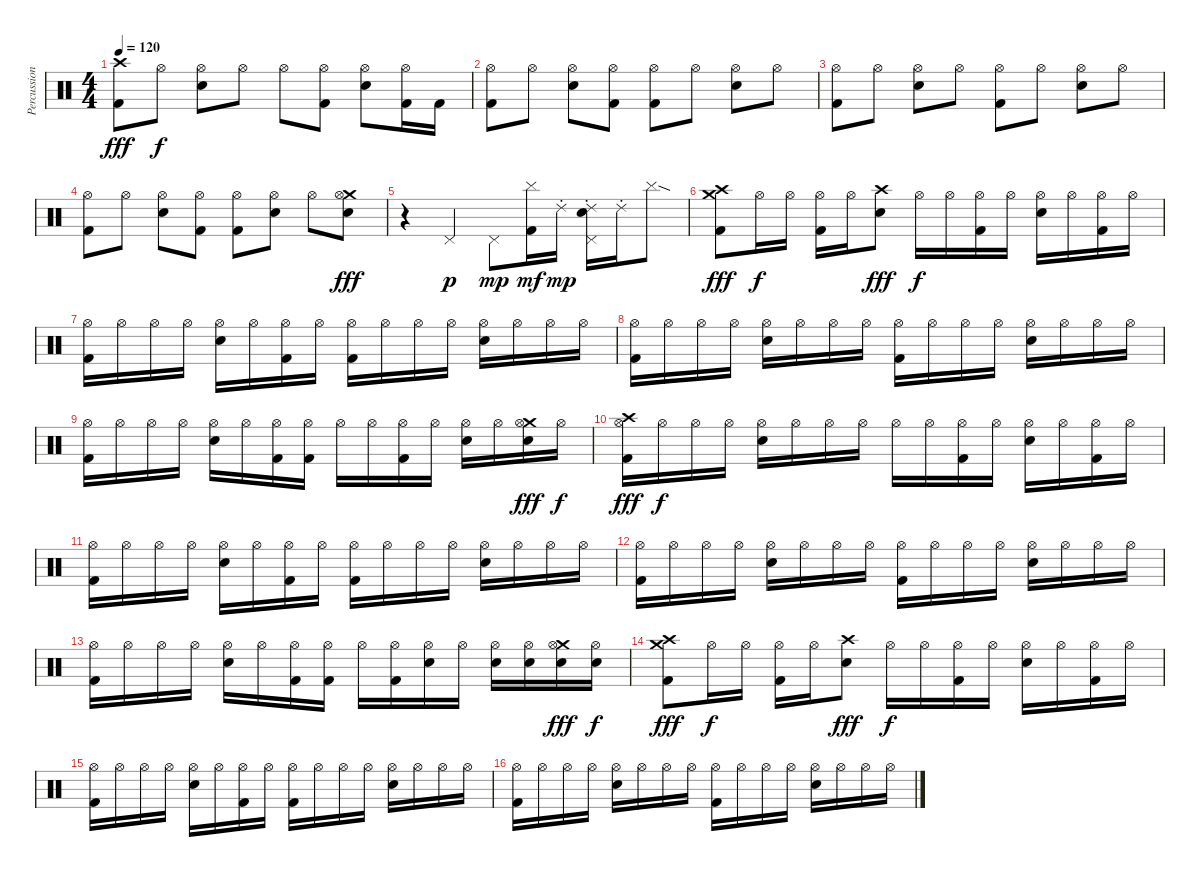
\track ("Percussion" "Percussion") {instrument percussion}
\staff {score}
\articulation defaults
\ts (4 4)
\tempo 120
\clef neutral
\ks c
("Crash high (hit)" "Kick (hit) 2").8{dy fff} "Hi-Hat (open)".8{dy f} ("Hi-Hat (open)" "Electric Snare (hit)").8 "Hi-Hat (open)".8 "Hi-Hat (open)".8 ("Hi-Hat (open)" "Kick (hit) 2").8 ("Hi-Hat (open)" "Electric Snare (hit)").8 ("Hi-Hat (open)" "Kick (hit) 2").16 "Kick (hit) 2".16 |
("Hi-Hat (open)" "Kick (hit) 2").8 "Hi-Hat (open)".8 ("Hi-Hat (open)" "Electric Snare (hit)").8 ("Hi-Hat (open)" "Kick (hit) 2").8 ("Hi-Hat (open)" "Kick (hit) 2").8 "Hi-Hat (open)".8 ("Hi-Hat (open)" "Electric Snare (hit)").8 "Hi-Hat (open)".8 |
("Hi-Hat (open)" "Kick (hit) 2").8 "Hi-Hat (open)".8 ("Hi-Hat (open)" "Electric Snare (hit)").8 "Hi-Hat (open)".8 ("Hi-Hat (open)" "Kick (hit) 2").8 "Hi-Hat (open)".8 ("Hi-Hat (open)" "Electric Snare (hit)").8 "Hi-Hat (open)".8 |
("Hi-Hat (open)" "Kick (hit) 2").8 "Hi-Hat (open)".8 ("Hi-Hat (open)" "Electric Snare (hit)").8 ("Hi-Hat (open)" "Kick (hit) 2").8 ("Hi-Hat (open)" "Kick (hit) 2").8 ("Hi-Hat (open)" "Electric Snare (hit)").8 "Hi-Hat (open)".8 ("Crash medium (hit)" "Hi-Hat (open)" "Electric Snare (hit)").8{dy fff} |
r.4 "Pedal Hi-Hat (hit)".4{dy p} "Pedal Hi-Hat (hit)".8{dy mp} ("Cymbal (hit)" "Kick (hit) 2").16{dy mf} "Ride (choke) 2".16{dy mp} ("Ride (choke) 2" "Pedal Hi-Hat (hit)" "Electric Snare (hit)").16 "Ride (choke) 2".16 "Cymbal (hit)"{sod}.8 |
("Crash high (hit)" "Crash medium (hit)" "Kick (hit) 2").8{dy fff volume 9} "Hi-Hat (open)".16{dy f} "Hi-Hat (open)".16 ("Hi-Hat (open)" "Kick (hit) 2").16 "Hi-Hat (open)".16 ("Crash high (hit)" "Electric Snare (hit)").8{dy fff} "Hi-Hat (open)".16{dy f} "Hi-Hat (open)".16 ("Hi-Hat (open)" "Kick (hit) 2").16 "Hi-Hat (open)".16 ("Hi-Hat (open)" "Electric Snare (hit)").16 "Hi-Hat (open)".16 ("Hi-Hat (open)" "Kick (hit) 2").16 "Hi-Hat (open)".16 |
("Hi-Hat (open)" "Kick (hit) 2").16 "Hi-Hat (open)".16 "Hi-Hat (open)".16 "Hi-Hat (open)".16 ("Hi-Hat (open)" "Electric Snare (hit)").16 "Hi-Hat (open)".16 ("Hi-Hat (open)" "Kick (hit) 2").16 "Hi-Hat (open)".16 ("Hi-Hat (open)" "Kick (hit) 2").16 "Hi-Hat (open)".16 "Hi-Hat (open)".16 "Hi-Hat (open)".16 ("Hi-Hat (open)" "Electric Snare (hit)").16 "Hi-Hat (open)".16 "Hi-Hat (open)".16 "Hi-Hat (open)".16 |
("Hi-Hat (open)" "Kick (hit) 2").16 "Hi-Hat (open)".16 "Hi-Hat (open)".16 "Hi-Hat (open)".16 ("Hi-Hat (open)" "Electric Snare (hit)").16 "Hi-Hat (open)".16 "Hi-Hat (open)".16 "Hi-Hat (open)".16 ("Hi-Hat (open)" "Kick (hit) 2").16 "Hi-Hat (open)".16 "Hi-Hat (open)".16 "Hi-Hat (open)".16 ("Hi-Hat (open)" "Electric Snare (hit)").16 "Hi-Hat (open)".16 "Hi-Hat (open)".16 "Hi-Hat (open)".16 |
("Hi-Hat (open)" "Kick (hit) 2").16 "Hi-Hat (open)".16 "Hi-Hat (open)".16 "Hi-Hat (open)".16 ("Hi-Hat (open)" "Electric Snare (hit)").16 "Hi-Hat (open)".16 ("Hi-Hat (open)" "Kick (hit) 2").16 ("Hi-Hat (open)" "Kick (hit) 2").16 "Hi-Hat (open)".16 "Hi-Hat (open)".16 ("Hi-Hat (open)" "Kick (hit) 2").16 "Hi-Hat (open)".16 ("Hi-Hat (open)" "Electric Snare (hit)").16 "Hi-Hat (open)".16 ("Crash medium (hit)" "Hi-Hat (open)" "Electric Snare (hit)").16{dy fff} "Hi-Hat (open)".16{dy f} |
("Crash high (hit)" "Hi-Hat (open)" "Kick (hit) 2").16{dy fff volume 5} "Hi-Hat (open)".16{dy f} "Hi-Hat (open)".16 "Hi-Hat (open)".16 ("Hi-Hat (open)" "Electric Snare (hit)").16 "Hi-Hat (open)".16 "Hi-Hat (open)".16 "Hi-Hat (open)".16 "Hi-Hat (open)".16 "Hi-Hat (open)".16 ("Hi-Hat (open)" "Kick (hit) 2").16 "Hi-Hat (open)".16 ("Hi-Hat (open)" "Electric Snare (hit)").16 "Hi-Hat (open)".16 ("Hi-Hat (open)" "Kick (hit) 2").16 "Hi-Hat (open)".16 |
("Hi-Hat (open)" "Kick (hit) 2").16 "Hi-Hat (open)".16 "Hi-Hat (open)".16 "Hi-Hat (open)".16 ("Hi-Hat (open)" "Electric Snare (hit)").16 "Hi-Hat (open)".16 ("Hi-Hat (open)" "Kick (hit) 2").16 "Hi-Hat (open)".16 ("Hi-Hat (open)" "Kick (hit) 2").16 "Hi-Hat (open)".16 "Hi-Hat (open)".16 "Hi-Hat (open)".16 ("Hi-Hat (open)" "Electric Snare (hit)").16 "Hi-Hat (open)".16 "Hi-Hat (open)".16 "Hi-Hat (open)".16 |
("Hi-Hat (open)" "Kick (hit) 2").16 "Hi-Hat (open)".16 "Hi-Hat (open)".16 "Hi-Hat (open)".16 ("Hi-Hat (open)" "Electric Snare (hit)").16 "Hi-Hat (open)".16 "Hi-Hat (open)".16 "Hi-Hat (open)".16 ("Hi-Hat (open)" "Kick (hit) 2").16 "Hi-Hat (open)".16 "Hi-Hat (open)".16 "Hi-Hat (open)".16 ("Hi-Hat (open)" "Electric Snare (hit)").16 "Hi-Hat (open)".16 "Hi-Hat (open)".16 "Hi-Hat (open)".16 |
("Hi-Hat (open)" "Kick (hit) 2").16 "Hi-Hat (open)".16 "Hi-Hat (open)".16 "Hi-Hat (open)".16 ("Hi-Hat (open)" "Electric Snare (hit)").16 "Hi-Hat (open)".16 ("Hi-Hat (open)" "Kick (hit) 2").16 ("Hi-Hat (open)" "Kick (hit) 2").16 "Hi-Hat (open)".16 ("Hi-Hat (open)" "Kick (hit) 2").16 ("Hi-Hat (open)" "Electric Snare (hit)").16 "Hi-Hat (open)".16 ("Hi-Hat (open)" "Electric Snare (hit)").16 ("Hi-Hat (open)" "Electric Snare (hit)").16 ("Crash medium (hit)" "Hi-Hat (open)" "Electric Snare (hit)").16{dy fff} ("Hi-Hat (open)" "Electric Snare (hit)").16{dy f} |
("Crash high (hit)" "Crash medium (hit)" "Kick (hit) 2").8{dy fff volume 1} "Hi-Hat (open)".16{dy f} "Hi-Hat (open)".16 ("Hi-Hat (open)" "Kick (hit) 2").16 "Hi-Hat (open)".16 ("Crash high (hit)" "Electric Snare (hit)").8{dy fff} "Hi-Hat (open)".16{dy f} "Hi-Hat (open)".16 ("Hi-Hat (open)" "Kick (hit) 2").16 "Hi-Hat (open)".16 ("Hi-Hat (open)" "Electric Snare (hit)").16 "Hi-Hat (open)".16 ("Hi-Hat (open)" "Kick (hit) 2").16 "Hi-Hat (open)".16 |
("Hi-Hat (open)" "Kick (hit) 2").16 "Hi-Hat (open)".16 "Hi-Hat (open)".16 "Hi-Hat (open)".16 ("Hi-Hat (open)" "Electric Snare (hit)").16 "Hi-Hat (open)".16 ("Hi-Hat (open)" "Kick (hit) 2").16 "Hi-Hat (open)".16 ("Hi-Hat (open)" "Kick (hit) 2").16 "Hi-Hat (open)".16 "Hi-Hat (open)".16 "Hi-Hat (open)".16 ("Hi-Hat (open)" "Electric Snare (hit)").16 "Hi-Hat (open)".16 "Hi-Hat (open)".16 "Hi-Hat (open)".16 |
("Hi-Hat (open)" "Kick (hit) 2").16 "Hi-Hat (open)".16 "Hi-Hat (open)".16 "Hi-Hat (open)".16 ("Hi-Hat (open)" "Electric Snare (hit)").16 "Hi-Hat (open)".16 "Hi-Hat (open)".16 "Hi-Hat (open)".16 ("Hi-Hat (open)" "Kick (hit) 2").16 "Hi-Hat (open)".16 "Hi-Hat (open)".16 "Hi-Hat (open)".16 ("Hi-Hat (open)" "Electric Snare (hit)").16 "Hi-Hat (open)".16 "Hi-Hat (open)".16 "Hi-Hat (open)".16
